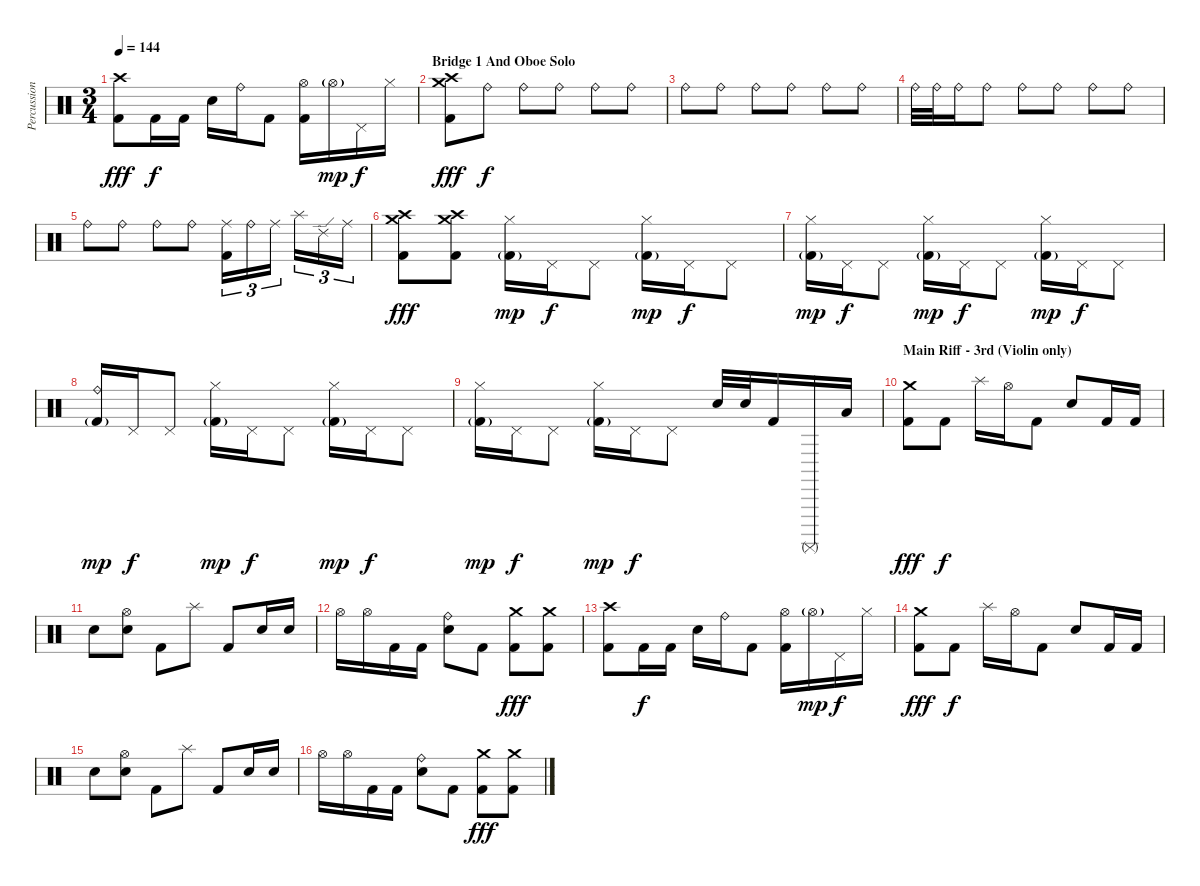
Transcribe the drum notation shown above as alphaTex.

\track ("Percussion" "Percussion") {instrument percussion}
\staff {score}
\articulation defaults
\ts (3 4)
\tempo 144
\clef neutral
\ks c
("Crash high (hit)" "Kick (hit) 2").8{dy fff} "Kick (hit) 2".16{dy f} "Kick (hit) 2".16 "Electric Snare (hit)".16 "Ride (bell)".16 "Kick (hit) 2".8 ("Hi-Hat (open)" "Kick (hit) 2").16 "Hi-Hat (open)"{g}.16{dy mp} "Pedal Hi-Hat (hit)".16{dy f} "Hi-Hat (closed)".16 |
\section ("" "Bridge 1 And Oboe Solo")
("Crash medium (hit)" "Crash high (hit)" "Kick (hit) 2").8{dy fff} "Ride (bell)".8{dy f} "Ride (bell)".8 "Ride (bell)".8 "Ride (bell)".8 "Ride (bell)".8 |
"Ride (bell)".8 "Ride (bell)".8 "Ride (bell)".8 "Ride (bell)".8 "Ride (bell)".8 "Ride (bell)".8 |
"Ride (bell)".32 "Ride (bell)".32 "Ride (bell)".16 "Ride (bell)".8 "Ride (bell)".8 "Ride (bell)".8 "Ride (bell)".8 "Ride (bell)".8 |
"Ride (bell)".8 "Ride (bell)".8 "Ride (bell)".8 "Ride (bell)".8 ("Ride (middle)" "Kick (hit) 2").16{tu (3 2)} "Ride (bell)".16{tu (3 2)} "Ride (middle)".16{tu (3 2)} "Splash (hit)".16{tu (3 2)} "Ride (edge) 2".16{tu (3 2)} "Ride (middle)".16{tu (3 2)} |
("Crash medium (hit)" "Crash high (hit)" "Kick (hit) 2").8{dy fff} ("Crash medium (hit)" "Crash high (hit)" "Kick (hit) 2").8 ("Hi-Hat (closed)" "Kick (hit) 2"{g}).16{dy mp} "Pedal Hi-Hat (hit)".16{dy f} "Pedal Hi-Hat (hit)".8 ("Hi-Hat (closed)" "Kick (hit) 2"{g}).16{dy mp} "Pedal Hi-Hat (hit)".16{dy f} "Pedal Hi-Hat (hit)".8 |
("Hi-Hat (closed)" "Kick (hit) 2"{g}).16{dy mp} "Pedal Hi-Hat (hit)".16{dy f} "Pedal Hi-Hat (hit)".8 ("Hi-Hat (closed)" "Kick (hit) 2"{g}).16{dy mp} "Pedal Hi-Hat (hit)".16{dy f} "Pedal Hi-Hat (hit)".8 ("Hi-Hat (closed)" "Kick (hit) 2"{g}).16{dy mp} "Pedal Hi-Hat (hit)".16{dy f} "Pedal Hi-Hat (hit)".8 |
("Ride (bell)" "Kick (hit) 2"{g}).16{dy mp} "Pedal Hi-Hat (hit)".16{dy f} "Pedal Hi-Hat (hit)".8 ("Hi-Hat (closed)" "Kick (hit) 2"{g}).16{dy mp} "Pedal Hi-Hat (hit)".16{dy f} "Pedal Hi-Hat (hit)".8 ("Hi-Hat (closed)" "Kick (hit) 2"{g}).16{dy mp} "Pedal Hi-Hat (hit)".16{dy f} "Pedal Hi-Hat (hit)".8 |
("Hi-Hat (closed)" "Kick (hit) 2"{g}).16{dy mp} "Pedal Hi-Hat (hit)".16{dy f} "Pedal Hi-Hat (hit)".8 ("Hi-Hat (closed)" "Kick (hit) 2"{g}).16{dy mp} "Pedal Hi-Hat (hit)".16{dy f} "Pedal Hi-Hat (hit)".8 "Electric Snare (hit)".32 "Electric Snare (hit)".32 "Kick (hit) 2".16 "Surdo (mute)".16 "Low Tom (hit)".16 |
\section ("" "Main Riff - 3rd (Violin only)")
("Crash medium (hit)" "Kick (hit) 2").8{dy fff} "Kick (hit) 2".8{dy f} "Splash (hit)".16 "Hi-Hat (open)".16 "Kick (hit) 2".8 "Electric Snare (hit)".8 "Kick (hit) 2".16 "Kick (hit) 2".16 |
"Electric Snare (hit)".8 ("Hi-Hat (open)" "Electric Snare (hit)").8 "Kick (hit) 2".8 "Splash (hit)".8 "Kick (hit) 2".8 "Electric Snare (hit)".16 "Electric Snare (hit)".16 |
"Hi-Hat (open)".16 "Hi-Hat (open)".16 "Kick (hit) 2".16 "Kick (hit) 2".16 ("Ride (bell)" "Electric Snare (hit)").8 "Kick (hit) 2".8 ("Crash medium (hit)" "Kick (hit) 2").8{dy fff} ("Crash medium (hit)" "Kick (hit) 2").8 |
("Crash high (hit)" "Kick (hit) 2").8 "Kick (hit) 2".16{dy f} "Kick (hit) 2".16 "Electric Snare (hit)".16 "Ride (bell)".16 "Kick (hit) 2".8 ("Hi-Hat (open)" "Kick (hit) 2").16 "Hi-Hat (open)"{g}.16{dy mp} "Pedal Hi-Hat (hit)".16{dy f} "Hi-Hat (closed)".16 |
("Crash medium (hit)" "Kick (hit) 2").8{dy fff} "Kick (hit) 2".8{dy f} "Splash (hit)".16 "Hi-Hat (open)".16 "Kick (hit) 2".8 "Electric Snare (hit)".8 "Kick (hit) 2".16 "Kick (hit) 2".16 |
"Electric Snare (hit)".8 ("Hi-Hat (open)" "Electric Snare (hit)").8 "Kick (hit) 2".8 "Splash (hit)".8 "Kick (hit) 2".8 "Electric Snare (hit)".16 "Electric Snare (hit)".16 |
"Hi-Hat (open)".16 "Hi-Hat (open)".16 "Kick (hit) 2".16 "Kick (hit) 2".16 ("Ride (bell)" "Electric Snare (hit)").8 "Kick (hit) 2".8 ("Crash medium (hit)" "Kick (hit) 2").8{dy fff} ("Crash medium (hit)" "Kick (hit) 2").8
